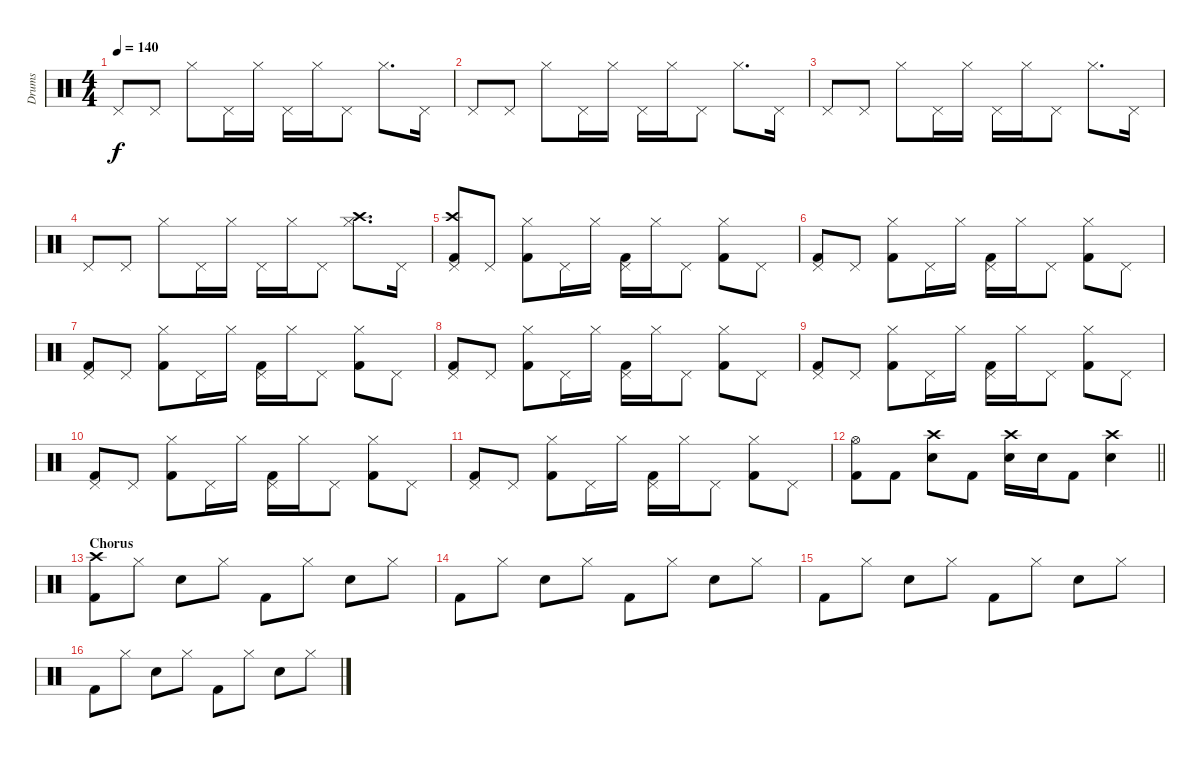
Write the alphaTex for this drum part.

\track ("Drums" "Drums") {instrument percussion}
\staff {score}
\articulation defaults
\ts (4 4)
\tempo 140
\clef neutral
\ks c "Pedal Hi-Hat (hit)".8{dy f} "Pedal Hi-Hat (hit)".8 "Hi-Hat (closed)".8 "Pedal Hi-Hat (hit)".16 "Hi-Hat (closed)".16 "Pedal Hi-Hat (hit)".16 "Hi-Hat (closed)".16 "Pedal Hi-Hat (hit)".8 "Hi-Hat (closed)".8{d} "Pedal Hi-Hat (hit)".16
|
"Pedal Hi-Hat (hit)".8 "Pedal Hi-Hat (hit)".8 "Hi-Hat (closed)".8 "Pedal Hi-Hat (hit)".16 "Hi-Hat (closed)".16 "Pedal Hi-Hat (hit)".16 "Hi-Hat (closed)".16 "Pedal Hi-Hat (hit)".8 "Hi-Hat (closed)".8{d} "Pedal Hi-Hat (hit)".16 |
"Pedal Hi-Hat (hit)".8 "Pedal Hi-Hat (hit)".8 "Hi-Hat (closed)".8 "Pedal Hi-Hat (hit)".16 "Hi-Hat (closed)".16 "Pedal Hi-Hat (hit)".16 "Hi-Hat (closed)".16 "Pedal Hi-Hat (hit)".8 "Hi-Hat (closed)".8{d} "Pedal Hi-Hat (hit)".16 |
"Pedal Hi-Hat (hit)".8 "Pedal Hi-Hat (hit)".8 "Hi-Hat (closed)".8 "Pedal Hi-Hat (hit)".16 "Hi-Hat (closed)".16 "Pedal Hi-Hat (hit)".16 "Hi-Hat (closed)".16 "Pedal Hi-Hat (hit)".8 ("Hi-Hat (closed)" "Crash high (hit)").8{d} "Pedal Hi-Hat (hit)".16 |
("Pedal Hi-Hat (hit)" "Crash high (hit)" "Kick (hit) 2").8 "Pedal Hi-Hat (hit)".8 ("Hi-Hat (closed)" "Kick (hit) 2").8 "Pedal Hi-Hat (hit)".16 "Hi-Hat (closed)".16 ("Pedal Hi-Hat (hit)" "Kick (hit) 2").16 "Hi-Hat (closed)".16 "Pedal Hi-Hat (hit)".8 ("Hi-Hat (closed)" "Kick (hit) 2").8 "Pedal Hi-Hat (hit)".8 |
("Pedal Hi-Hat (hit)" "Kick (hit) 2").8 "Pedal Hi-Hat (hit)".8 ("Hi-Hat (closed)" "Kick (hit) 2").8 "Pedal Hi-Hat (hit)".16 "Hi-Hat (closed)".16 ("Pedal Hi-Hat (hit)" "Kick (hit) 2").16 "Hi-Hat (closed)".16 "Pedal Hi-Hat (hit)".8 ("Hi-Hat (closed)" "Kick (hit) 2").8 "Pedal Hi-Hat (hit)".8 |
("Pedal Hi-Hat (hit)" "Kick (hit) 2").8 "Pedal Hi-Hat (hit)".8 ("Hi-Hat (closed)" "Kick (hit) 2").8 "Pedal Hi-Hat (hit)".16 "Hi-Hat (closed)".16 ("Pedal Hi-Hat (hit)" "Kick (hit) 2").16 "Hi-Hat (closed)".16 "Pedal Hi-Hat (hit)".8 ("Hi-Hat (closed)" "Kick (hit) 2").8 "Pedal Hi-Hat (hit)".8 |
("Pedal Hi-Hat (hit)" "Kick (hit) 2").8 "Pedal Hi-Hat (hit)".8 ("Hi-Hat (closed)" "Kick (hit) 2").8 "Pedal Hi-Hat (hit)".16 "Hi-Hat (closed)".16 ("Pedal Hi-Hat (hit)" "Kick (hit) 2").16 "Hi-Hat (closed)".16 "Pedal Hi-Hat (hit)".8 ("Hi-Hat (closed)" "Kick (hit) 2").8 "Pedal Hi-Hat (hit)".8 |
("Pedal Hi-Hat (hit)" "Kick (hit) 2").8 "Pedal Hi-Hat (hit)".8 ("Hi-Hat (closed)" "Kick (hit) 2").8 "Pedal Hi-Hat (hit)".16 "Hi-Hat (closed)".16 ("Pedal Hi-Hat (hit)" "Kick (hit) 2").16 "Hi-Hat (closed)".16 "Pedal Hi-Hat (hit)".8 ("Hi-Hat (closed)" "Kick (hit) 2").8 "Pedal Hi-Hat (hit)".8 |
("Pedal Hi-Hat (hit)" "Kick (hit) 2").8 "Pedal Hi-Hat (hit)".8 ("Hi-Hat (closed)" "Kick (hit) 2").8 "Pedal Hi-Hat (hit)".16 "Hi-Hat (closed)".16 ("Pedal Hi-Hat (hit)" "Kick (hit) 2").16 "Hi-Hat (closed)".16 "Pedal Hi-Hat (hit)".8 ("Hi-Hat (closed)" "Kick (hit) 2").8 "Pedal Hi-Hat (hit)".8 |
("Pedal Hi-Hat (hit)" "Kick (hit) 2").8 "Pedal Hi-Hat (hit)".8 ("Hi-Hat (closed)" "Kick (hit) 2").8 "Pedal Hi-Hat (hit)".16 "Hi-Hat (closed)".16 ("Pedal Hi-Hat (hit)" "Kick (hit) 2").16 "Hi-Hat (closed)".16 "Pedal Hi-Hat (hit)".8 ("Hi-Hat (closed)" "Kick (hit) 2").8 "Pedal Hi-Hat (hit)".8 |
\barLineRight lightlight
("Kick (hit) 2" "Hi-Hat (open)").8 "Kick (hit) 2".8 ("Snare (hit) 2" "Crash high (hit)").8 "Kick (hit) 2".8 ("Snare (hit) 2" "Crash high (hit)").16 "Snare (hit) 2".16 "Kick (hit) 2".8 ("Snare (hit) 2" "Crash high (hit)").4 |
\section ("" "Chorus")
("Kick (hit) 2" "Crash high (hit)").8 "Hi-Hat (closed)".8 "Snare (hit) 2".8 "Hi-Hat (closed)".8 "Kick (hit) 2".8 "Hi-Hat (closed)".8 "Snare (hit) 2".8 "Hi-Hat (closed)".8 |
"Kick (hit) 2".8 "Hi-Hat (closed)".8 "Snare (hit) 2".8 "Hi-Hat (closed)".8 "Kick (hit) 2".8 "Hi-Hat (closed)".8 "Snare (hit) 2".8 "Hi-Hat (closed)".8 |
"Kick (hit) 2".8 "Hi-Hat (closed)".8 "Snare (hit) 2".8 "Hi-Hat (closed)".8 "Kick (hit) 2".8 "Hi-Hat (closed)".8 "Snare (hit) 2".8 "Hi-Hat (closed)".8 |
"Kick (hit) 2".8 "Hi-Hat (closed)".8 "Snare (hit) 2".8 "Hi-Hat (closed)".8 "Kick (hit) 2".8 "Hi-Hat (closed)".8 "Snare (hit) 2".8 "Hi-Hat (closed)".8
